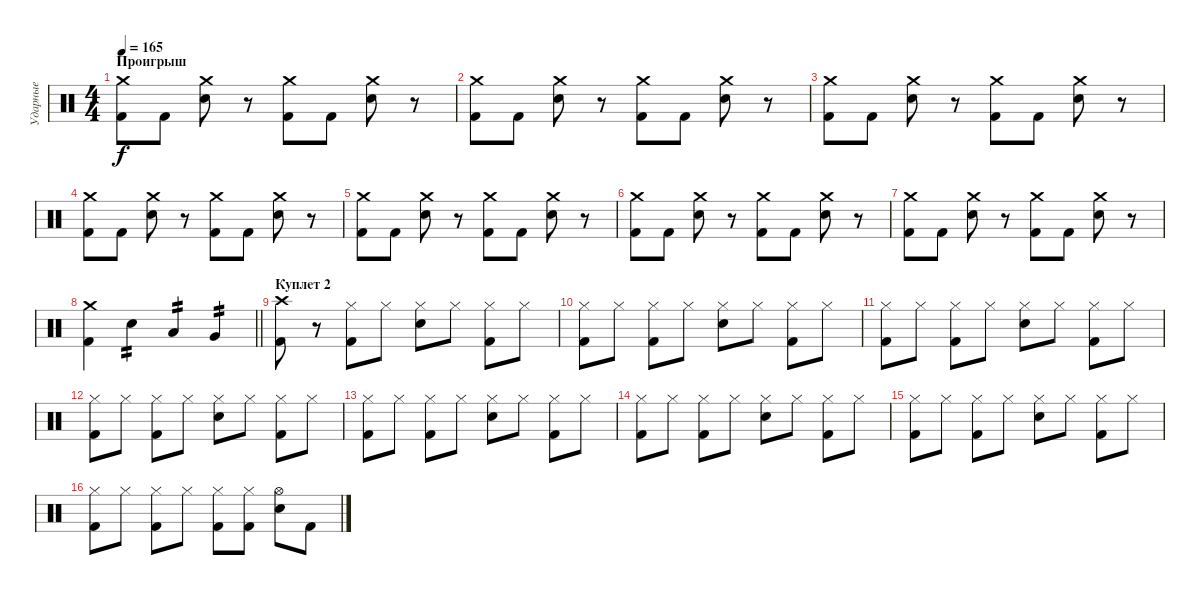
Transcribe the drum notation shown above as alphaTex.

\track ("Ударные" "Ударные") {instrument percussion}
\staff {score}
\articulation defaults
\ts (4 4)
\section ("" "Проигрыш")
\tempo 165
\clef neutral
\ks c
("Crash medium (hit)" "Kick (hit) 2").8{dy f} "Kick (hit) 2".8 ("Crash medium (hit)" "Electric Snare (hit)").8 r.8 ("Crash medium (hit)" "Kick (hit) 2").8 "Kick (hit) 2".8 ("Crash medium (hit)" "Electric Snare (hit)").8 r.8 |
("Crash medium (hit)" "Kick (hit) 2").8 "Kick (hit) 2".8 ("Crash medium (hit)" "Electric Snare (hit)").8 r.8 ("Crash medium (hit)" "Kick (hit) 2").8 "Kick (hit) 2".8 ("Crash medium (hit)" "Electric Snare (hit)").8 r.8 |
("Crash medium (hit)" "Kick (hit) 2").8 "Kick (hit) 2".8 ("Crash medium (hit)" "Electric Snare (hit)").8 r.8 ("Crash medium (hit)" "Kick (hit) 2").8 "Kick (hit) 2".8 ("Crash medium (hit)" "Electric Snare (hit)").8 r.8 |
("Crash medium (hit)" "Kick (hit) 2").8 "Kick (hit) 2".8 ("Crash medium (hit)" "Electric Snare (hit)").8 r.8 ("Crash medium (hit)" "Kick (hit) 2").8 "Kick (hit) 2".8 ("Crash medium (hit)" "Electric Snare (hit)").8 r.8 |
("Crash medium (hit)" "Kick (hit) 2").8 "Kick (hit) 2".8 ("Crash medium (hit)" "Electric Snare (hit)").8 r.8 ("Crash medium (hit)" "Kick (hit) 2").8 "Kick (hit) 2".8 ("Crash medium (hit)" "Electric Snare (hit)").8 r.8 |
("Crash medium (hit)" "Kick (hit) 2").8 "Kick (hit) 2".8 ("Crash medium (hit)" "Electric Snare (hit)").8 r.8 ("Crash medium (hit)" "Kick (hit) 2").8 "Kick (hit) 2".8 ("Crash medium (hit)" "Electric Snare (hit)").8 r.8 |
("Crash medium (hit)" "Kick (hit) 2").8 "Kick (hit) 2".8 ("Crash medium (hit)" "Electric Snare (hit)").8 r.8 ("Crash medium (hit)" "Kick (hit) 2").8 "Kick (hit) 2".8 ("Crash medium (hit)" "Electric Snare (hit)").8 r.8 |
\barLineRight lightlight
("Crash medium (hit)" "Kick (hit) 2").4 "Electric Snare (hit)".4{tp 2} "Low Tom (hit)".4{tp 2} "Very Low Tom (hit)".4{tp 2} |
\section ("" "Куплет 2")
("Crash high (hit)" "Kick (hit) 2").8 r.8 ("Hi-Hat (closed)" "Kick (hit) 2").8 "Hi-Hat (closed)".8 ("Hi-Hat (closed)" "Electric Snare (hit)").8 "Hi-Hat (closed)".8 ("Hi-Hat (closed)" "Kick (hit) 2").8 "Hi-Hat (closed)".8 |
("Hi-Hat (closed)" "Kick (hit) 2").8 "Hi-Hat (closed)".8 ("Hi-Hat (closed)" "Kick (hit) 2").8 "Hi-Hat (closed)".8 ("Hi-Hat (closed)" "Electric Snare (hit)").8 "Hi-Hat (closed)".8 ("Hi-Hat (closed)" "Kick (hit) 2").8 "Hi-Hat (closed)".8 |
("Hi-Hat (closed)" "Kick (hit) 2").8 "Hi-Hat (closed)".8 ("Hi-Hat (closed)" "Kick (hit) 2").8 "Hi-Hat (closed)".8 ("Hi-Hat (closed)" "Electric Snare (hit)").8 "Hi-Hat (closed)".8 ("Hi-Hat (closed)" "Kick (hit) 2").8 "Hi-Hat (closed)".8 |
("Hi-Hat (closed)" "Kick (hit) 2").8 "Hi-Hat (closed)".8 ("Hi-Hat (closed)" "Kick (hit) 2").8 "Hi-Hat (closed)".8 ("Hi-Hat (closed)" "Electric Snare (hit)").8 "Hi-Hat (closed)".8 ("Hi-Hat (closed)" "Kick (hit) 2").8 "Hi-Hat (closed)".8 |
("Hi-Hat (closed)" "Kick (hit) 2").8 "Hi-Hat (closed)".8 ("Hi-Hat (closed)" "Kick (hit) 2").8 "Hi-Hat (closed)".8 ("Hi-Hat (closed)" "Electric Snare (hit)").8 "Hi-Hat (closed)".8 ("Hi-Hat (closed)" "Kick (hit) 2").8 "Hi-Hat (closed)".8 |
("Hi-Hat (closed)" "Kick (hit) 2").8 "Hi-Hat (closed)".8 ("Hi-Hat (closed)" "Kick (hit) 2").8 "Hi-Hat (closed)".8 ("Hi-Hat (closed)" "Electric Snare (hit)").8 "Hi-Hat (closed)".8 ("Hi-Hat (closed)" "Kick (hit) 2").8 "Hi-Hat (closed)".8 |
("Hi-Hat (closed)" "Kick (hit) 2").8 "Hi-Hat (closed)".8 ("Hi-Hat (closed)" "Kick (hit) 2").8 "Hi-Hat (closed)".8 ("Hi-Hat (closed)" "Electric Snare (hit)").8 "Hi-Hat (closed)".8 ("Hi-Hat (closed)" "Kick (hit) 2").8 "Hi-Hat (closed)".8 |
("Hi-Hat (closed)" "Kick (hit) 2").8 "Hi-Hat (closed)".8 ("Hi-Hat (closed)" "Kick (hit) 2").8 "Hi-Hat (closed)".8 ("Hi-Hat (closed)" "Kick (hit) 2").8 ("Hi-Hat (closed)" "Kick (hit) 2").8 ("Hi-Hat (open)" "Electric Snare (hit)").8 "Kick (hit) 2".8
